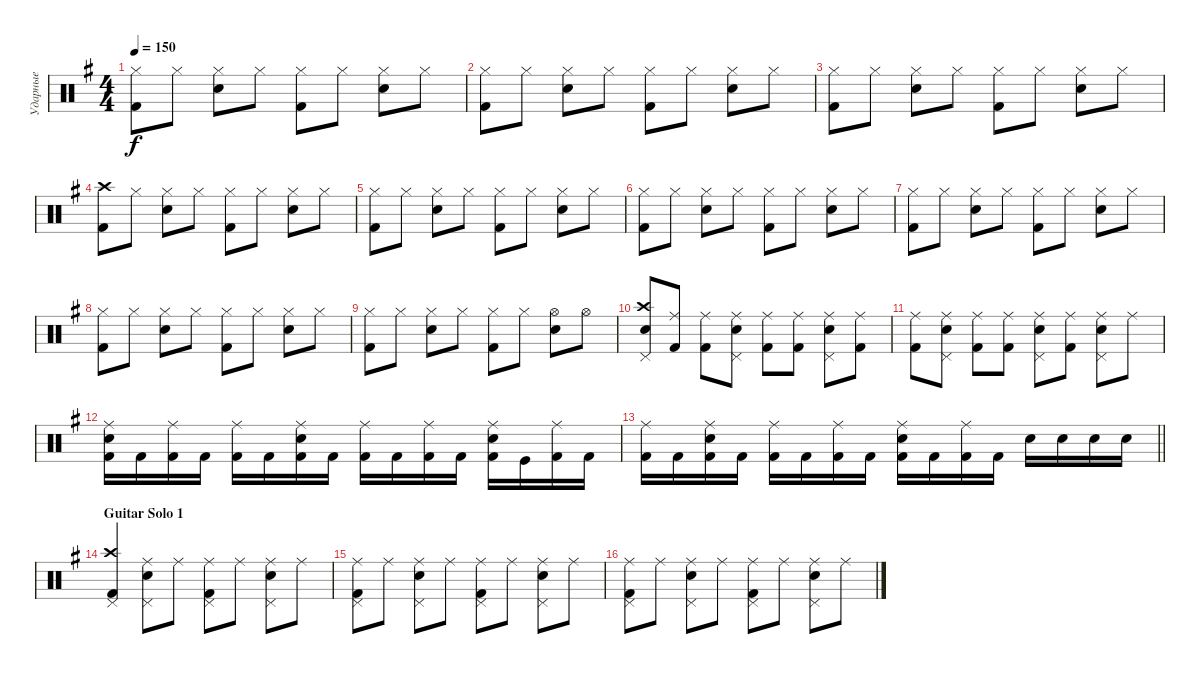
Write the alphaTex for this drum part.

\track ("Ударные" "Ударные") {instrument percussion}
\staff {score}
\articulation defaults
\ts (4 4)
\tempo 150
\clef neutral
\ks eminor
("Hi-Hat (closed)" "Kick (hit) 2").8{dy f} "Hi-Hat (closed)".8 ("Hi-Hat (closed)" "Snare (hit) 2").8 "Hi-Hat (closed)".8 ("Hi-Hat (closed)" "Kick (hit) 2").8 "Hi-Hat (closed)".8 ("Hi-Hat (closed)" "Snare (hit) 2").8 "Hi-Hat (closed)".8 |
("Hi-Hat (closed)" "Kick (hit) 2").8 "Hi-Hat (closed)".8 ("Hi-Hat (closed)" "Snare (hit) 2").8 "Hi-Hat (closed)".8 ("Hi-Hat (closed)" "Kick (hit) 2").8 "Hi-Hat (closed)".8 ("Hi-Hat (closed)" "Snare (hit) 2").8 "Hi-Hat (closed)".8 |
("Hi-Hat (closed)" "Kick (hit) 2").8 "Hi-Hat (closed)".8 ("Hi-Hat (closed)" "Snare (hit) 2").8 "Hi-Hat (closed)".8 ("Hi-Hat (closed)" "Kick (hit) 2").8 "Hi-Hat (closed)".8 ("Hi-Hat (closed)" "Snare (hit) 2").8 "Hi-Hat (closed)".8 |
("Crash high (hit)" "Kick (hit) 2").8 "Hi-Hat (closed)".8 ("Hi-Hat (closed)" "Snare (hit) 2").8 "Hi-Hat (closed)".8 ("Hi-Hat (closed)" "Kick (hit) 2").8 "Hi-Hat (closed)".8 ("Hi-Hat (closed)" "Snare (hit) 2").8 "Hi-Hat (closed)".8 |
("Hi-Hat (closed)" "Kick (hit) 2").8 "Hi-Hat (closed)".8 ("Hi-Hat (closed)" "Snare (hit) 2").8 "Hi-Hat (closed)".8 ("Hi-Hat (closed)" "Kick (hit) 2").8 "Hi-Hat (closed)".8 ("Hi-Hat (closed)" "Snare (hit) 2").8 "Hi-Hat (closed)".8 |
("Hi-Hat (closed)" "Kick (hit) 2").8 "Hi-Hat (closed)".8 ("Hi-Hat (closed)" "Snare (hit) 2").8 "Hi-Hat (closed)".8 ("Hi-Hat (closed)" "Kick (hit) 2").8 "Hi-Hat (closed)".8 ("Hi-Hat (closed)" "Snare (hit) 2").8 "Hi-Hat (closed)".8 |
("Hi-Hat (closed)" "Kick (hit) 2").8 "Hi-Hat (closed)".8 ("Hi-Hat (closed)" "Snare (hit) 2").8 "Hi-Hat (closed)".8 ("Hi-Hat (closed)" "Kick (hit) 2").8 "Hi-Hat (closed)".8 ("Hi-Hat (closed)" "Snare (hit) 2").8 "Hi-Hat (closed)".8 |
("Hi-Hat (closed)" "Kick (hit) 2").8 "Hi-Hat (closed)".8 ("Hi-Hat (closed)" "Snare (hit) 2").8 "Hi-Hat (closed)".8 ("Hi-Hat (closed)" "Kick (hit) 2").8 "Hi-Hat (closed)".8 ("Hi-Hat (closed)" "Snare (hit) 2").8 "Hi-Hat (closed)".8 |
("Hi-Hat (closed)" "Kick (hit) 2").8 "Hi-Hat (closed)".8 ("Hi-Hat (closed)" "Snare (hit) 2").8 "Hi-Hat (closed)".8 ("Hi-Hat (closed)" "Kick (hit) 2").8 "Hi-Hat (closed)".8 ("Hi-Hat (open)" "Snare (hit) 2").8 "Hi-Hat (open)".8 |
("Snare (hit) 2" "Crash high (hit)" "Pedal Hi-Hat (hit)").8 ("Kick (hit) 2" "Ride (middle)").8 ("Kick (hit) 2" "Ride (middle)").8 ("Snare (hit) 2" "Ride (middle)" "Pedal Hi-Hat (hit)").8 ("Kick (hit) 2" "Ride (middle)").8 ("Kick (hit) 2" "Ride (middle)").8 ("Snare (hit) 2" "Ride (middle)" "Pedal Hi-Hat (hit)").8 ("Kick (hit) 2" "Ride (middle)").8 |
("Kick (hit) 2" "Ride (middle)").8 ("Snare (hit) 2" "Ride (middle)" "Pedal Hi-Hat (hit)").8 ("Kick (hit) 2" "Ride (middle)").8 ("Kick (hit) 2" "Ride (middle)").8 ("Snare (hit) 2" "Ride (middle)" "Pedal Hi-Hat (hit)").8 ("Kick (hit) 2" "Ride (middle)").8 ("Ride (middle)" "Snare (hit) 2" "Pedal Hi-Hat (hit)").8 "Ride (middle)".8 |
("Kick (hit) 2" "Ride (middle)" "Snare (hit) 2").16 "Kick (hit) 2".16 ("Kick (hit) 2" "Ride (middle)").16 "Kick (hit) 2".16 ("Kick (hit) 2" "Ride (middle)").16 "Kick (hit) 2".16 ("Kick (hit) 2" "Ride (middle)" "Snare (hit) 2").16 "Kick (hit) 2".16 ("Kick (hit) 2" "Ride (middle)").16 "Kick (hit) 2".16 ("Kick (hit) 2" "Ride (middle)").16 "Kick (hit) 2".16 ("Kick (hit) 2" "Ride (middle)" "Snare (hit) 2").16 "Kick (hit)".16 ("Kick (hit) 2" "Ride (middle)").16 "Kick (hit) 2".16 |
\barLineRight lightlight
("Kick (hit) 2" "Ride (middle)").16 "Kick (hit) 2".16 ("Kick (hit) 2" "Ride (middle)" "Snare (hit) 2").16 "Kick (hit) 2".16 ("Kick (hit) 2" "Ride (middle)").16 "Kick (hit) 2".16 ("Kick (hit) 2" "Ride (middle)").16 "Kick (hit) 2".16 ("Kick (hit) 2" "Ride (middle)" "Snare (hit) 2").16 "Kick (hit) 2".16 ("Kick (hit) 2" "Ride (middle)").16 "Kick (hit) 2".16 "Snare (hit) 2".16 "Snare (hit) 2".16 "Snare (hit) 2".16 "Snare (hit) 2".16 |
\section ("" "Guitar Solo 1")
("Crash high (hit)" "Kick (hit) 2" "Pedal Hi-Hat (hit)").4 ("Ride (middle)" "Snare (hit) 2" "Pedal Hi-Hat (hit)").8 "Ride (middle)".8 ("Ride (middle)" "Kick (hit) 2" "Pedal Hi-Hat (hit)").8 "Ride (middle)".8 ("Ride (middle)" "Snare (hit) 2" "Pedal Hi-Hat (hit)").8 "Ride (middle)".8 |
("Ride (middle)" "Kick (hit) 2" "Pedal Hi-Hat (hit)").8 "Ride (middle)".8 ("Ride (middle)" "Snare (hit) 2" "Pedal Hi-Hat (hit)").8 "Ride (middle)".8 ("Ride (middle)" "Kick (hit) 2" "Pedal Hi-Hat (hit)").8 "Ride (middle)".8 ("Ride (middle)" "Snare (hit) 2" "Pedal Hi-Hat (hit)").8 "Ride (middle)".8 |
("Ride (middle)" "Kick (hit) 2" "Pedal Hi-Hat (hit)").8 "Ride (middle)".8 ("Ride (middle)" "Snare (hit) 2" "Pedal Hi-Hat (hit)").8 "Ride (middle)".8 ("Ride (middle)" "Kick (hit) 2" "Pedal Hi-Hat (hit)").8 "Ride (middle)".8 ("Ride (middle)" "Snare (hit) 2" "Pedal Hi-Hat (hit)").8 "Ride (middle)".8
